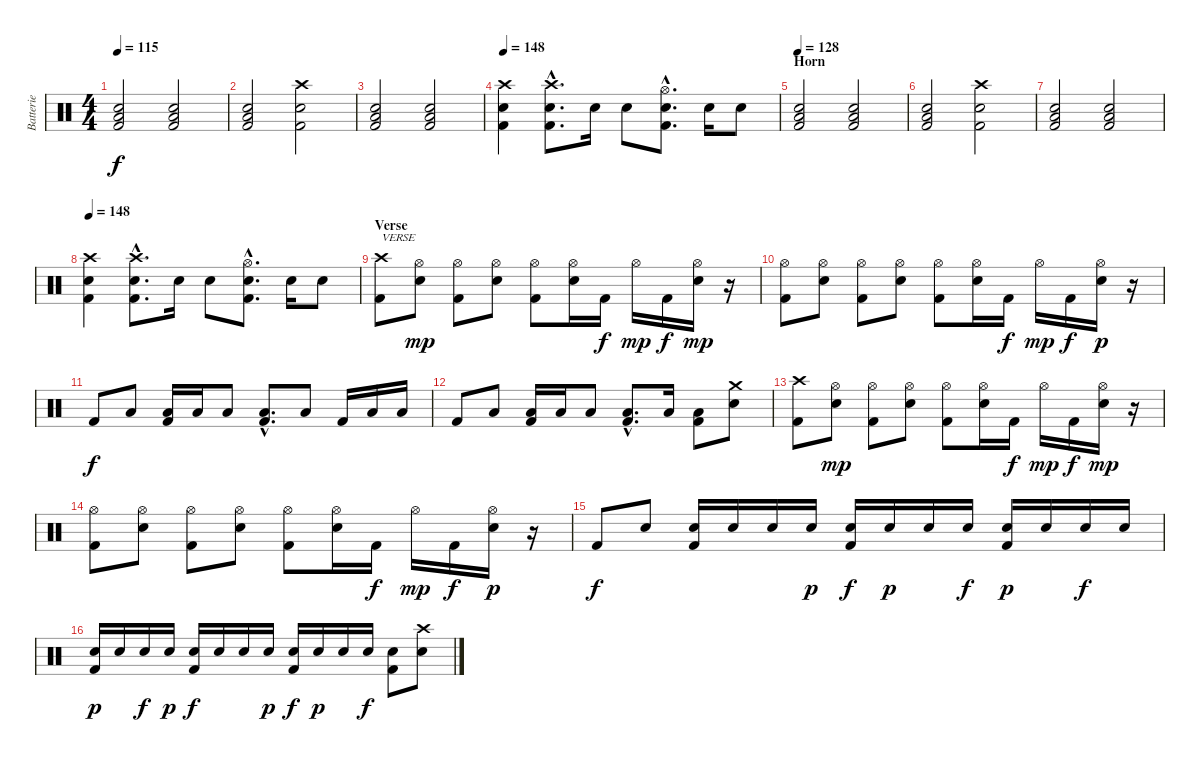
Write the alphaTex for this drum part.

\track ("Batterie" "Batterie") {instrument percussion}
\staff {score}
\articulation defaults
\ts (4 4)
\tempo 115
\tempo 128
\tempo 115
\clef neutral
\ks c
("Electric Snare (hit)" "Low Floor Tom (hit)" "Kick (hit) 2").2{dy f} ("Electric Snare (hit)" "Low Floor Tom (hit)" "Kick (hit) 2").2 |
("Electric Snare (hit)" "Low Floor Tom (hit)" "Kick (hit) 2").2 ("Crash high (hit)" "Electric Snare (hit)" "Kick (hit) 2").2 |
("Electric Snare (hit)" "Low Floor Tom (hit)" "Kick (hit) 2").2 ("Electric Snare (hit)" "Low Floor Tom (hit)" "Kick (hit) 2").2 |
\tempo 148
("Crash high (hit)" "Electric Snare (hit)" "Kick (hit) 2").4 ("Crash high (hit)"{hac} "Electric Snare (hit)"{hac} "Kick (hit) 2"{hac}).8{d} "Electric Snare (hit)".16 "Electric Snare (hit)".8 ("Hi-Hat (open)"{hac} "Electric Snare (hit)"{hac} "Kick (hit) 2"{hac}).8{d} "Electric Snare (hit)".16 "Electric Snare (hit)".8 |
\section ("" "Horn")
\tempo 128
("Electric Snare (hit)" "Low Floor Tom (hit)" "Kick (hit) 2").2 ("Electric Snare (hit)" "Low Floor Tom (hit)" "Kick (hit) 2").2 |
("Electric Snare (hit)" "Low Floor Tom (hit)" "Kick (hit) 2").2 ("Crash high (hit)" "Electric Snare (hit)" "Kick (hit) 2").2 |
("Electric Snare (hit)" "Low Floor Tom (hit)" "Kick (hit) 2").2 ("Electric Snare (hit)" "Low Floor Tom (hit)" "Kick (hit) 2").2 |
\tempo 148
("Crash high (hit)" "Electric Snare (hit)" "Kick (hit) 2").4 ("Crash high (hit)"{hac} "Electric Snare (hit)"{hac} "Kick (hit) 2"{hac}).8{d} "Electric Snare (hit)".16 "Electric Snare (hit)".8 ("Hi-Hat (open)"{hac} "Electric Snare (hit)"{hac} "Kick (hit) 2"{hac}).8{d} "Electric Snare (hit)".16 "Electric Snare (hit)".8 |
\section ("" "Verse")
("Crash high (hit)" "Kick (hit) 2").8{txt "VERSE"} ("Hi-Hat (open)" "Electric Snare (hit)").8{dy mp} ("Hi-Hat (open)" "Kick (hit) 2").8 ("Hi-Hat (open)" "Electric Snare (hit)").8 ("Hi-Hat (open)" "Kick (hit) 2").8 ("Hi-Hat (open)" "Electric Snare (hit)").16 "Kick (hit) 2".16{dy f} "Hi-Hat (open)".16{dy mp} "Kick (hit) 2".16{dy f} ("Hi-Hat (open)" "Electric Snare (hit)").16{dy mp} r.16 |
("Hi-Hat (open)" "Kick (hit) 2").8 ("Hi-Hat (open)" "Electric Snare (hit)").8 ("Hi-Hat (open)" "Kick (hit) 2").8 ("Hi-Hat (open)" "Electric Snare (hit)").8 ("Hi-Hat (open)" "Kick (hit) 2").8 ("Hi-Hat (open)" "Electric Snare (hit)").16 "Kick (hit) 2".16{dy f} "Hi-Hat (open)".16{dy mp} "Kick (hit) 2".16{dy f} ("Hi-Hat (open)" "Electric Snare (hit)").16{dy p} r.16 |
"Kick (hit) 2".8{dy f} "Low Tom (hit)".8 ("Low Tom (hit)" "Kick (hit) 2").16 "Low Tom (hit)".16 "Low Tom (hit)".8 ("Low Tom (hit)"{hac} "Kick (hit) 2"{hac}).8{d} "Low Tom (hit)".8 "Kick (hit) 2".16 "Low Tom (hit)".16 "Low Tom (hit)".16 |
"Kick (hit) 2".8 "Low Tom (hit)".8 ("Low Tom (hit)" "Kick (hit) 2").16 "Low Tom (hit)".16 "Low Tom (hit)".8 ("Low Tom (hit)"{hac} "Kick (hit) 2"{hac}).8{d} "Low Tom (hit)".16 ("Low Tom (hit)" "Kick (hit) 2").8 ("Crash medium (hit)" "Electric Snare (hit)").8 |
("Crash high (hit)" "Kick (hit) 2").8 ("Hi-Hat (open)" "Electric Snare (hit)").8{dy mp} ("Hi-Hat (open)" "Kick (hit) 2").8 ("Hi-Hat (open)" "Electric Snare (hit)").8 ("Hi-Hat (open)" "Kick (hit) 2").8 ("Hi-Hat (open)" "Electric Snare (hit)").16 "Kick (hit) 2".16{dy f} "Hi-Hat (open)".16{dy mp} "Kick (hit) 2".16{dy f} ("Hi-Hat (open)" "Electric Snare (hit)").16{dy mp} r.16 |
("Hi-Hat (open)" "Kick (hit) 2").8 ("Hi-Hat (open)" "Electric Snare (hit)").8 ("Hi-Hat (open)" "Kick (hit) 2").8 ("Hi-Hat (open)" "Electric Snare (hit)").8 ("Hi-Hat (open)" "Kick (hit) 2").8 ("Hi-Hat (open)" "Electric Snare (hit)").16 "Kick (hit) 2".16{dy f} "Hi-Hat (open)".16{dy mp} "Kick (hit) 2".16{dy f} ("Hi-Hat (open)" "Electric Snare (hit)").16{dy p} r.16 |
"Kick (hit) 2".8{dy f} "Electric Snare (hit)".8 ("Electric Snare (hit)" "Kick (hit) 2").16 "Electric Snare (hit)".16 "Electric Snare (hit)".16 "Electric Snare (hit)".16{dy p} ("Electric Snare (hit)" "Kick (hit) 2").16{dy f} "Electric Snare (hit)".16{dy p} "Electric Snare (hit)".16 "Electric Snare (hit)".16{dy f} ("Electric Snare (hit)" "Kick (hit) 2").16{dy p} "Electric Snare (hit)".16 "Electric Snare (hit)".16{dy f} "Electric Snare (hit)".16 |
("Electric Snare (hit)" "Kick (hit) 2").16{dy p} "Electric Snare (hit)".16 "Electric Snare (hit)".16{dy f} "Electric Snare (hit)".16{dy p} ("Electric Snare (hit)" "Kick (hit) 2").16{dy f} "Electric Snare (hit)".16 "Electric Snare (hit)".16 "Electric Snare (hit)".16{dy p} ("Electric Snare (hit)" "Kick (hit) 2").16{dy f} "Electric Snare (hit)".16{dy p} "Electric Snare (hit)".16 "Electric Snare (hit)".16{dy f} ("Electric Snare (hit)" "Kick (hit) 2").8 ("Electric Snare (hit)" "Crash high (hit)").8
